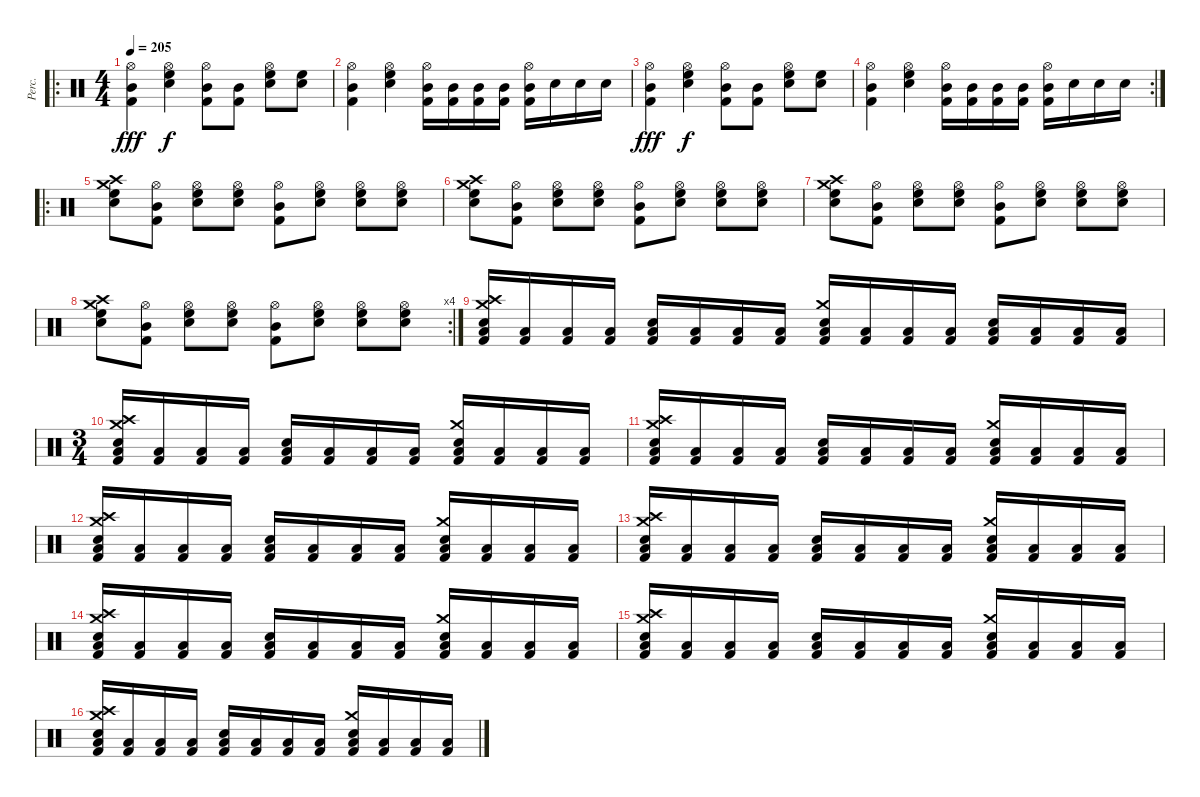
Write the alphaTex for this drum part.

\track ("Perc." "Perc.") {instrument percussion}
\staff {score}
\articulation defaults
\ro
\ts (4 4)
\tempo 205
\clef neutral
\ks c
("Hi-Hat (open)" "Mid Tom (hit)" "Kick (hit) 2").4{dy fff} ("Hi-Hat (open)" "High Floor Tom (hit)" "Snare (hit) 2").4{dy f} ("Hi-Hat (open)" "Mid Tom (hit)" "Kick (hit) 2").8 ("Mid Tom (hit)" "Kick (hit) 2").8 ("Hi-Hat (open)" "High Floor Tom (hit)" "Snare (hit) 2").8 ("High Floor Tom (hit)" "Snare (hit) 2").8 |
("Hi-Hat (open)" "Mid Tom (hit)" "Kick (hit) 2").4 ("Hi-Hat (open)" "High Floor Tom (hit)" "Snare (hit) 2").4 ("Hi-Hat (open)" "Mid Tom (hit)" "Kick (hit) 2").16 ("Mid Tom (hit)" "Kick (hit) 2").16 ("Mid Tom (hit)" "Kick (hit) 2").16 ("Mid Tom (hit)" "Kick (hit) 2").16 ("Hi-Hat (open)" "Mid Tom (hit)" "Kick (hit) 2").16 "Snare (hit) 2".16 "Snare (hit) 2".16 "Snare (hit) 2".16 |
("Hi-Hat (open)" "Mid Tom (hit)" "Kick (hit) 2").4{dy fff} ("Hi-Hat (open)" "High Floor Tom (hit)" "Snare (hit) 2").4{dy f} ("Hi-Hat (open)" "Mid Tom (hit)" "Kick (hit) 2").8 ("Mid Tom (hit)" "Kick (hit) 2").8 ("Hi-Hat (open)" "High Floor Tom (hit)" "Snare (hit) 2").8 ("High Floor Tom (hit)" "Snare (hit) 2").8 |
\rc 2
("Hi-Hat (open)" "Mid Tom (hit)" "Kick (hit) 2").4 ("Hi-Hat (open)" "High Floor Tom (hit)" "Snare (hit) 2").4 ("Hi-Hat (open)" "Mid Tom (hit)" "Kick (hit) 2").16 ("Mid Tom (hit)" "Kick (hit) 2").16 ("Mid Tom (hit)" "Kick (hit) 2").16 ("Mid Tom (hit)" "Kick (hit) 2").16 ("Hi-Hat (open)" "Mid Tom (hit)" "Kick (hit) 2").16 "Snare (hit) 2".16 "Snare (hit) 2".16 "Snare (hit) 2".16 |
\ro
("Crash high (hit)" "Crash medium (hit)" "High Floor Tom (hit)" "Snare (hit) 2").8 ("Hi-Hat (open)" "Mid Tom (hit)" "Kick (hit) 2").8 ("Hi-Hat (open)" "High Floor Tom (hit)" "Snare (hit) 2").8 ("Hi-Hat (open)" "High Floor Tom (hit)" "Snare (hit) 2").8 ("Hi-Hat (open)" "Mid Tom (hit)" "Kick (hit) 2").8 ("Hi-Hat (open)" "High Floor Tom (hit)" "Snare (hit) 2").8 ("Hi-Hat (open)" "High Floor Tom (hit)" "Snare (hit) 2").8 ("Hi-Hat (open)" "High Floor Tom (hit)" "Snare (hit) 2").8 |
("Crash high (hit)" "Crash medium (hit)" "High Floor Tom (hit)" "Snare (hit) 2").8 ("Hi-Hat (open)" "Mid Tom (hit)" "Kick (hit) 2").8 ("Hi-Hat (open)" "High Floor Tom (hit)" "Snare (hit) 2").8 ("Hi-Hat (open)" "High Floor Tom (hit)" "Snare (hit) 2").8 ("Hi-Hat (open)" "Mid Tom (hit)" "Kick (hit) 2").8 ("Hi-Hat (open)" "High Floor Tom (hit)" "Snare (hit) 2").8 ("Hi-Hat (open)" "High Floor Tom (hit)" "Snare (hit) 2").8 ("Hi-Hat (open)" "High Floor Tom (hit)" "Snare (hit) 2").8 |
("Crash high (hit)" "Crash medium (hit)" "High Floor Tom (hit)" "Snare (hit) 2").8 ("Hi-Hat (open)" "Mid Tom (hit)" "Kick (hit) 2").8 ("Hi-Hat (open)" "High Floor Tom (hit)" "Snare (hit) 2").8 ("Hi-Hat (open)" "High Floor Tom (hit)" "Snare (hit) 2").8 ("Hi-Hat (open)" "Mid Tom (hit)" "Kick (hit) 2").8 ("Hi-Hat (open)" "High Floor Tom (hit)" "Snare (hit) 2").8 ("Hi-Hat (open)" "High Floor Tom (hit)" "Snare (hit) 2").8 ("Hi-Hat (open)" "High Floor Tom (hit)" "Snare (hit) 2").8 |
\rc 4
("Crash high (hit)" "Crash medium (hit)" "High Floor Tom (hit)" "Snare (hit) 2").8 ("Hi-Hat (open)" "Mid Tom (hit)" "Kick (hit) 2").8 ("Hi-Hat (open)" "High Floor Tom (hit)" "Snare (hit) 2").8 ("Hi-Hat (open)" "High Floor Tom (hit)" "Snare (hit) 2").8 ("Hi-Hat (open)" "Mid Tom (hit)" "Kick (hit) 2").8 ("Hi-Hat (open)" "High Floor Tom (hit)" "Snare (hit) 2").8 ("Hi-Hat (open)" "High Floor Tom (hit)" "Snare (hit) 2").8 ("Hi-Hat (open)" "High Floor Tom (hit)" "Snare (hit) 2").8 |
("Crash high (hit)" "Crash medium (hit)" "Snare (hit) 2" "Low Floor Tom (hit)" "Kick (hit) 2").16 ("Low Floor Tom (hit)" "Kick (hit) 2").16 ("Low Floor Tom (hit)" "Kick (hit) 2").16 ("Low Floor Tom (hit)" "Kick (hit) 2").16 ("Snare (hit) 2" "Low Floor Tom (hit)" "Kick (hit) 2").16 ("Low Floor Tom (hit)" "Kick (hit) 2").16 ("Low Floor Tom (hit)" "Kick (hit) 2").16 ("Low Floor Tom (hit)" "Kick (hit) 2").16 ("Crash medium (hit)" "Snare (hit) 2" "Low Floor Tom (hit)" "Kick (hit) 2").16 ("Low Floor Tom (hit)" "Kick (hit) 2").16 ("Low Floor Tom (hit)" "Kick (hit) 2").16 ("Low Floor Tom (hit)" "Kick (hit) 2").16 ("Snare (hit) 2" "Low Floor Tom (hit)" "Kick (hit) 2").16 ("Low Floor Tom (hit)" "Kick (hit) 2").16 ("Low Floor Tom (hit)" "Kick (hit) 2").16 ("Low Floor Tom (hit)" "Kick (hit) 2").16 |
\ts (3 4)
("Crash high (hit)" "Crash medium (hit)" "Snare (hit) 2" "Low Floor Tom (hit)" "Kick (hit) 2").16 ("Low Floor Tom (hit)" "Kick (hit) 2").16 ("Low Floor Tom (hit)" "Kick (hit) 2").16 ("Low Floor Tom (hit)" "Kick (hit) 2").16 ("Snare (hit) 2" "Low Floor Tom (hit)" "Kick (hit) 2").16 ("Low Floor Tom (hit)" "Kick (hit) 2").16 ("Low Floor Tom (hit)" "Kick (hit) 2").16 ("Low Floor Tom (hit)" "Kick (hit) 2").16 ("Crash medium (hit)" "Snare (hit) 2" "Low Floor Tom (hit)" "Kick (hit) 2").16 ("Low Floor Tom (hit)" "Kick (hit) 2").16 ("Low Floor Tom (hit)" "Kick (hit) 2").16 ("Low Floor Tom (hit)" "Kick (hit) 2").16 |
("Crash high (hit)" "Crash medium (hit)" "Snare (hit) 2" "Low Floor Tom (hit)" "Kick (hit) 2").16 ("Low Floor Tom (hit)" "Kick (hit) 2").16 ("Low Floor Tom (hit)" "Kick (hit) 2").16 ("Low Floor Tom (hit)" "Kick (hit) 2").16 ("Snare (hit) 2" "Low Floor Tom (hit)" "Kick (hit) 2").16 ("Low Floor Tom (hit)" "Kick (hit) 2").16 ("Low Floor Tom (hit)" "Kick (hit) 2").16 ("Low Floor Tom (hit)" "Kick (hit) 2").16 ("Crash medium (hit)" "Snare (hit) 2" "Low Floor Tom (hit)" "Kick (hit) 2").16 ("Low Floor Tom (hit)" "Kick (hit) 2").16 ("Low Floor Tom (hit)" "Kick (hit) 2").16 ("Low Floor Tom (hit)" "Kick (hit) 2").16 |
("Crash high (hit)" "Crash medium (hit)" "Snare (hit) 2" "Low Floor Tom (hit)" "Kick (hit) 2").16 ("Low Floor Tom (hit)" "Kick (hit) 2").16 ("Low Floor Tom (hit)" "Kick (hit) 2").16 ("Low Floor Tom (hit)" "Kick (hit) 2").16 ("Snare (hit) 2" "Low Floor Tom (hit)" "Kick (hit) 2").16 ("Low Floor Tom (hit)" "Kick (hit) 2").16 ("Low Floor Tom (hit)" "Kick (hit) 2").16 ("Low Floor Tom (hit)" "Kick (hit) 2").16 ("Crash medium (hit)" "Snare (hit) 2" "Low Floor Tom (hit)" "Kick (hit) 2").16 ("Low Floor Tom (hit)" "Kick (hit) 2").16 ("Low Floor Tom (hit)" "Kick (hit) 2").16 ("Low Floor Tom (hit)" "Kick (hit) 2").16 |
("Crash high (hit)" "Crash medium (hit)" "Snare (hit) 2" "Low Floor Tom (hit)" "Kick (hit) 2").16 ("Low Floor Tom (hit)" "Kick (hit) 2").16 ("Low Floor Tom (hit)" "Kick (hit) 2").16 ("Low Floor Tom (hit)" "Kick (hit) 2").16 ("Snare (hit) 2" "Low Floor Tom (hit)" "Kick (hit) 2").16 ("Low Floor Tom (hit)" "Kick (hit) 2").16 ("Low Floor Tom (hit)" "Kick (hit) 2").16 ("Low Floor Tom (hit)" "Kick (hit) 2").16 ("Crash medium (hit)" "Snare (hit) 2" "Low Floor Tom (hit)" "Kick (hit) 2").16 ("Low Floor Tom (hit)" "Kick (hit) 2").16 ("Low Floor Tom (hit)" "Kick (hit) 2").16 ("Low Floor Tom (hit)" "Kick (hit) 2").16 |
("Crash high (hit)" "Crash medium (hit)" "Snare (hit) 2" "Low Floor Tom (hit)" "Kick (hit) 2").16 ("Low Floor Tom (hit)" "Kick (hit) 2").16 ("Low Floor Tom (hit)" "Kick (hit) 2").16 ("Low Floor Tom (hit)" "Kick (hit) 2").16 ("Snare (hit) 2" "Low Floor Tom (hit)" "Kick (hit) 2").16 ("Low Floor Tom (hit)" "Kick (hit) 2").16 ("Low Floor Tom (hit)" "Kick (hit) 2").16 ("Low Floor Tom (hit)" "Kick (hit) 2").16 ("Crash medium (hit)" "Snare (hit) 2" "Low Floor Tom (hit)" "Kick (hit) 2").16 ("Low Floor Tom (hit)" "Kick (hit) 2").16 ("Low Floor Tom (hit)" "Kick (hit) 2").16 ("Low Floor Tom (hit)" "Kick (hit) 2").16 |
("Crash high (hit)" "Crash medium (hit)" "Snare (hit) 2" "Low Floor Tom (hit)" "Kick (hit) 2").16 ("Low Floor Tom (hit)" "Kick (hit) 2").16 ("Low Floor Tom (hit)" "Kick (hit) 2").16 ("Low Floor Tom (hit)" "Kick (hit) 2").16 ("Snare (hit) 2" "Low Floor Tom (hit)" "Kick (hit) 2").16 ("Low Floor Tom (hit)" "Kick (hit) 2").16 ("Low Floor Tom (hit)" "Kick (hit) 2").16 ("Low Floor Tom (hit)" "Kick (hit) 2").16 ("Crash medium (hit)" "Snare (hit) 2" "Low Floor Tom (hit)" "Kick (hit) 2").16 ("Low Floor Tom (hit)" "Kick (hit) 2").16 ("Low Floor Tom (hit)" "Kick (hit) 2").16 ("Low Floor Tom (hit)" "Kick (hit) 2").16 |
("Crash high (hit)" "Crash medium (hit)" "Snare (hit) 2" "Low Floor Tom (hit)" "Kick (hit) 2").16 ("Low Floor Tom (hit)" "Kick (hit) 2").16 ("Low Floor Tom (hit)" "Kick (hit) 2").16 ("Low Floor Tom (hit)" "Kick (hit) 2").16 ("Snare (hit) 2" "Low Floor Tom (hit)" "Kick (hit) 2").16 ("Low Floor Tom (hit)" "Kick (hit) 2").16 ("Low Floor Tom (hit)" "Kick (hit) 2").16 ("Low Floor Tom (hit)" "Kick (hit) 2").16 ("Crash medium (hit)" "Snare (hit) 2" "Low Floor Tom (hit)" "Kick (hit) 2").16 ("Low Floor Tom (hit)" "Kick (hit) 2").16 ("Low Floor Tom (hit)" "Kick (hit) 2").16 ("Low Floor Tom (hit)" "Kick (hit) 2").16
